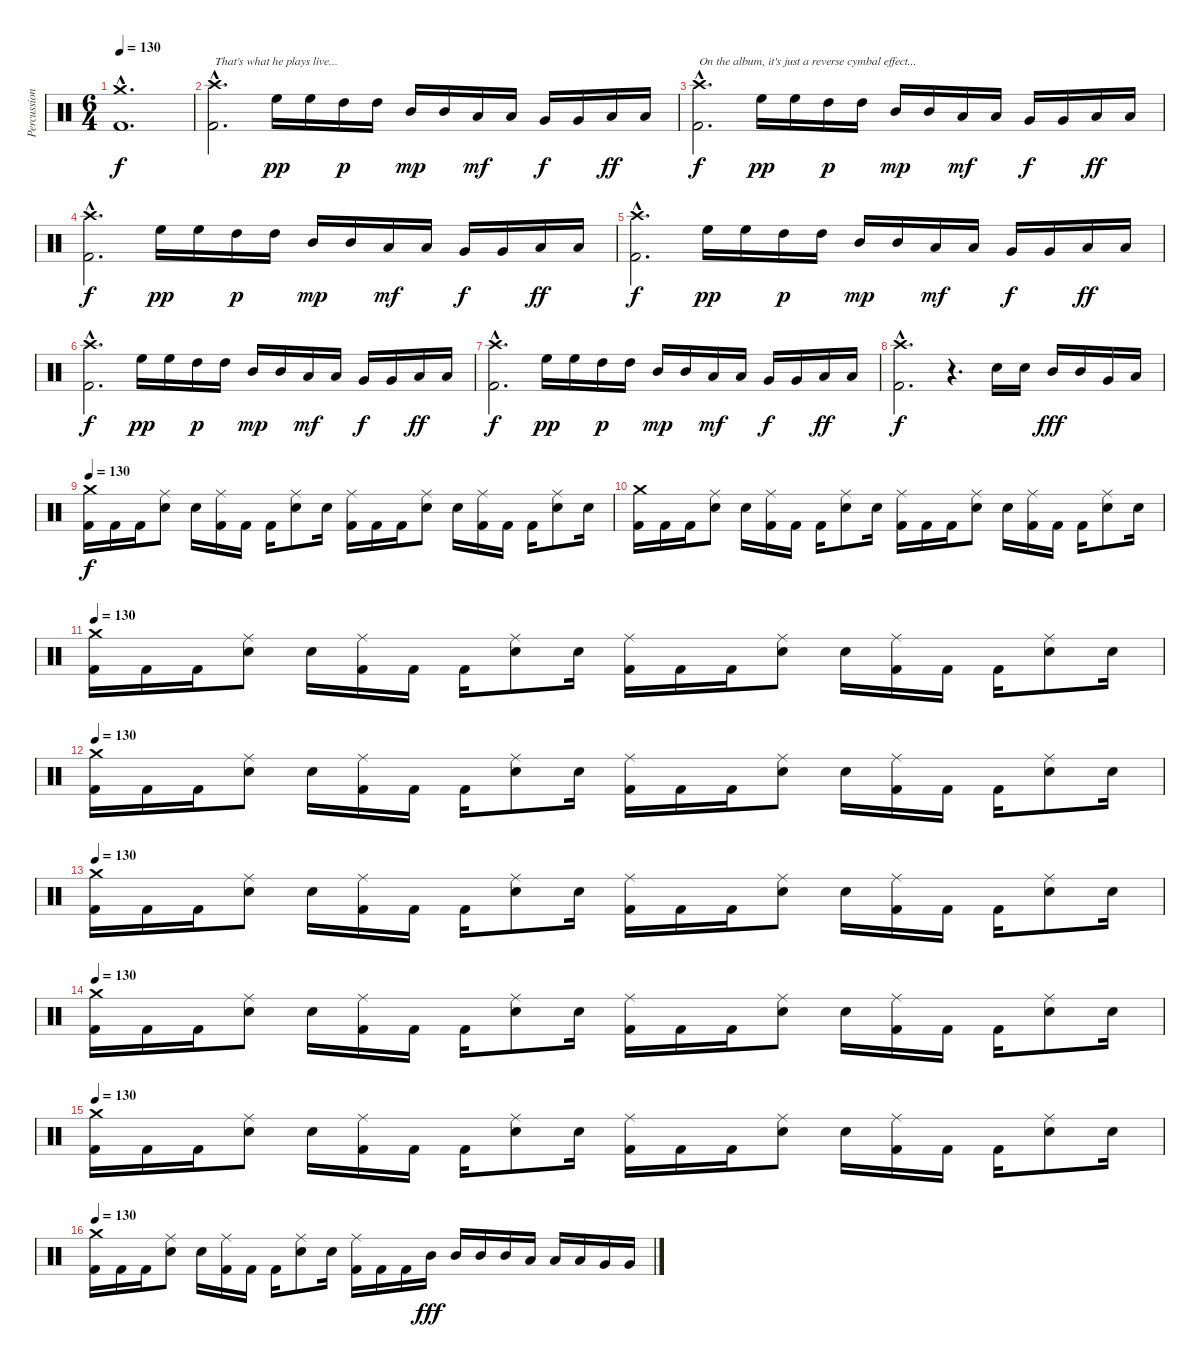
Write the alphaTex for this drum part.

\track ("Percussions" "Percussion") {instrument percussion}
\staff {score}
\articulation defaults
\ts (6 4)
\tempo 130
\tempo 140
\tempo 130
\clef neutral
\ks c
("Crash medium (hit)"{hac} "Kick (hit) 2"{hac}).1{d dy f} |
("Crash high (hit)"{hac} "Kick (hit) 2"{hac}).2{d txt "That's what he plays live..."} "High Floor Tom (hit)".16{dy pp} "High Floor Tom (hit)".16 "High Tom (hit)".16{dy p} "High Tom (hit)".16 "Mid Tom (hit)".16{dy mp} "Mid Tom (hit)".16 "Low Tom (hit)".16{dy mf} "Low Tom (hit)".16 "Very Low Tom (hit)".16{dy f} "Very Low Tom (hit)".16 "Low Floor Tom (hit)".16{dy ff} "Low Floor Tom (hit)".16 |
("Crash high (hit)"{hac} "Kick (hit) 2"{hac}).2{d txt "On the album, it's just a reverse cymbal effect..." dy f} "High Floor Tom (hit)".16{dy pp} "High Floor Tom (hit)".16 "High Tom (hit)".16{dy p} "High Tom (hit)".16 "Mid Tom (hit)".16{dy mp} "Mid Tom (hit)".16 "Low Tom (hit)".16{dy mf} "Low Tom (hit)".16 "Very Low Tom (hit)".16{dy f} "Very Low Tom (hit)".16 "Low Floor Tom (hit)".16{dy ff} "Low Floor Tom (hit)".16 |
("Crash high (hit)"{hac} "Kick (hit) 2"{hac}).2{d dy f} "High Floor Tom (hit)".16{dy pp} "High Floor Tom (hit)".16 "High Tom (hit)".16{dy p} "High Tom (hit)".16 "Mid Tom (hit)".16{dy mp} "Mid Tom (hit)".16 "Low Tom (hit)".16{dy mf} "Low Tom (hit)".16 "Very Low Tom (hit)".16{dy f} "Very Low Tom (hit)".16 "Low Floor Tom (hit)".16{dy ff} "Low Floor Tom (hit)".16 |
("Crash high (hit)"{hac} "Kick (hit) 2"{hac}).2{d dy f} "High Floor Tom (hit)".16{dy pp} "High Floor Tom (hit)".16 "High Tom (hit)".16{dy p} "High Tom (hit)".16 "Mid Tom (hit)".16{dy mp} "Mid Tom (hit)".16 "Low Tom (hit)".16{dy mf} "Low Tom (hit)".16 "Very Low Tom (hit)".16{dy f} "Very Low Tom (hit)".16 "Low Floor Tom (hit)".16{dy ff} "Low Floor Tom (hit)".16 |
("Crash high (hit)"{hac} "Kick (hit) 2"{hac}).2{d dy f} "High Floor Tom (hit)".16{dy pp} "High Floor Tom (hit)".16 "High Tom (hit)".16{dy p} "High Tom (hit)".16 "Mid Tom (hit)".16{dy mp} "Mid Tom (hit)".16 "Low Tom (hit)".16{dy mf} "Low Tom (hit)".16 "Very Low Tom (hit)".16{dy f} "Very Low Tom (hit)".16 "Low Floor Tom (hit)".16{dy ff} "Low Floor Tom (hit)".16 |
("Crash high (hit)"{hac} "Kick (hit) 2"{hac}).2{d dy f} "High Floor Tom (hit)".16{dy pp} "High Floor Tom (hit)".16 "High Tom (hit)".16{dy p} "High Tom (hit)".16 "Mid Tom (hit)".16{dy mp} "Mid Tom (hit)".16 "Low Tom (hit)".16{dy mf} "Low Tom (hit)".16 "Very Low Tom (hit)".16{dy f} "Very Low Tom (hit)".16 "Low Floor Tom (hit)".16{dy ff} "Low Floor Tom (hit)".16 |
("Crash high (hit)"{hac} "Kick (hit) 2"{hac}).2{d dy f} r.4{d} "Snare (hit) 2".16 "Snare (hit) 2".16 "Mid Tom (hit)".16{dy fff} "Mid Tom (hit)".16 "Very Low Tom (hit)".16 "Low Floor Tom (hit)".16 |
\tempo 130
("Crash medium (hit)" "Kick (hit) 2").16{dy f} "Kick (hit) 2".16 "Kick (hit) 2".16 ("Ride (middle)" "Snare (hit) 2").8 "Snare (hit) 2".16 ("Ride (middle)" "Kick (hit) 2").16 "Kick (hit) 2".16 "Kick (hit) 2".16 ("Ride (middle)" "Snare (hit) 2").8 "Snare (hit) 2".16 ("Ride (middle)" "Kick (hit) 2").16 "Kick (hit) 2".16 "Kick (hit) 2".16 ("Ride (middle)" "Snare (hit) 2").8 "Snare (hit) 2".16 ("Ride (middle)" "Kick (hit) 2").16 "Kick (hit) 2".16 "Kick (hit) 2".16 ("Ride (middle)" "Snare (hit) 2").8 "Snare (hit) 2".16 |
("Crash medium (hit)" "Kick (hit) 2").16 "Kick (hit) 2".16 "Kick (hit) 2".16 ("Ride (middle)" "Snare (hit) 2").8 "Snare (hit) 2".16 ("Ride (middle)" "Kick (hit) 2").16 "Kick (hit) 2".16 "Kick (hit) 2".16 ("Ride (middle)" "Snare (hit) 2").8 "Snare (hit) 2".16 ("Ride (middle)" "Kick (hit) 2").16 "Kick (hit) 2".16 "Kick (hit) 2".16 ("Ride (middle)" "Snare (hit) 2").8 "Snare (hit) 2".16 ("Ride (middle)" "Kick (hit) 2").16 "Kick (hit) 2".16 "Kick (hit) 2".16 ("Ride (middle)" "Snare (hit) 2").8 "Snare (hit) 2".16 |
\tempo 130
("Crash medium (hit)" "Kick (hit) 2").16 "Kick (hit) 2".16 "Kick (hit) 2".16 ("Ride (middle)" "Snare (hit) 2").8 "Snare (hit) 2".16 ("Ride (middle)" "Kick (hit) 2").16 "Kick (hit) 2".16 "Kick (hit) 2".16 ("Ride (middle)" "Snare (hit) 2").8 "Snare (hit) 2".16 ("Ride (middle)" "Kick (hit) 2").16 "Kick (hit) 2".16 "Kick (hit) 2".16 ("Ride (middle)" "Snare (hit) 2").8 "Snare (hit) 2".16 ("Ride (middle)" "Kick (hit) 2").16 "Kick (hit) 2".16 "Kick (hit) 2".16 ("Ride (middle)" "Snare (hit) 2").8 "Snare (hit) 2".16 |
\tempo 130
("Crash medium (hit)" "Kick (hit) 2").16 "Kick (hit) 2".16 "Kick (hit) 2".16 ("Ride (middle)" "Snare (hit) 2").8 "Snare (hit) 2".16 ("Ride (middle)" "Kick (hit) 2").16 "Kick (hit) 2".16 "Kick (hit) 2".16 ("Ride (middle)" "Snare (hit) 2").8 "Snare (hit) 2".16 ("Ride (middle)" "Kick (hit) 2").16 "Kick (hit) 2".16 "Kick (hit) 2".16 ("Ride (middle)" "Snare (hit) 2").8 "Snare (hit) 2".16 ("Ride (middle)" "Kick (hit) 2").16 "Kick (hit) 2".16 "Kick (hit) 2".16 ("Ride (middle)" "Snare (hit) 2").8 "Snare (hit) 2".16 |
\tempo 130
("Crash medium (hit)" "Kick (hit) 2").16 "Kick (hit) 2".16 "Kick (hit) 2".16 ("Ride (middle)" "Snare (hit) 2").8 "Snare (hit) 2".16 ("Ride (middle)" "Kick (hit) 2").16 "Kick (hit) 2".16 "Kick (hit) 2".16 ("Ride (middle)" "Snare (hit) 2").8 "Snare (hit) 2".16 ("Ride (middle)" "Kick (hit) 2").16 "Kick (hit) 2".16 "Kick (hit) 2".16 ("Ride (middle)" "Snare (hit) 2").8 "Snare (hit) 2".16 ("Ride (middle)" "Kick (hit) 2").16 "Kick (hit) 2".16 "Kick (hit) 2".16 ("Ride (middle)" "Snare (hit) 2").8 "Snare (hit) 2".16 |
\tempo 130
("Crash medium (hit)" "Kick (hit) 2").16 "Kick (hit) 2".16 "Kick (hit) 2".16 ("Ride (middle)" "Snare (hit) 2").8 "Snare (hit) 2".16 ("Ride (middle)" "Kick (hit) 2").16 "Kick (hit) 2".16 "Kick (hit) 2".16 ("Ride (middle)" "Snare (hit) 2").8 "Snare (hit) 2".16 ("Ride (middle)" "Kick (hit) 2").16 "Kick (hit) 2".16 "Kick (hit) 2".16 ("Ride (middle)" "Snare (hit) 2").8 "Snare (hit) 2".16 ("Ride (middle)" "Kick (hit) 2").16 "Kick (hit) 2".16 "Kick (hit) 2".16 ("Ride (middle)" "Snare (hit) 2").8 "Snare (hit) 2".16 |
\tempo 130
("Crash medium (hit)" "Kick (hit) 2").16 "Kick (hit) 2".16 "Kick (hit) 2".16 ("Ride (middle)" "Snare (hit) 2").8 "Snare (hit) 2".16 ("Ride (middle)" "Kick (hit) 2").16 "Kick (hit) 2".16 "Kick (hit) 2".16 ("Ride (middle)" "Snare (hit) 2").8 "Snare (hit) 2".16 ("Ride (middle)" "Kick (hit) 2").16 "Kick (hit) 2".16 "Kick (hit) 2".16 ("Ride (middle)" "Snare (hit) 2").8 "Snare (hit) 2".16 ("Ride (middle)" "Kick (hit) 2").16 "Kick (hit) 2".16 "Kick (hit) 2".16 ("Ride (middle)" "Snare (hit) 2").8 "Snare (hit) 2".16 |
\tempo 130
("Crash medium (hit)" "Kick (hit) 2").16 "Kick (hit) 2".16 "Kick (hit) 2".16 ("Ride (middle)" "Snare (hit) 2").8 "Snare (hit) 2".16 ("Ride (middle)" "Kick (hit) 2").16 "Kick (hit) 2".16 "Kick (hit) 2".16 ("Ride (middle)" "Snare (hit) 2").8 "Snare (hit) 2".16 ("Ride (middle)" "Kick (hit) 2").16 "Kick (hit) 2".16 "Kick (hit) 2".16 "Mid Tom (hit)".16{dy fff} "Mid Tom (hit)".16 "Mid Tom (hit)".16 "Mid Tom (hit)".16 "Low Tom (hit)".16 "Low Tom (hit)".16 "Low Tom (hit)".16 "Very Low Tom (hit)".16 "Very Low Tom (hit)".16
